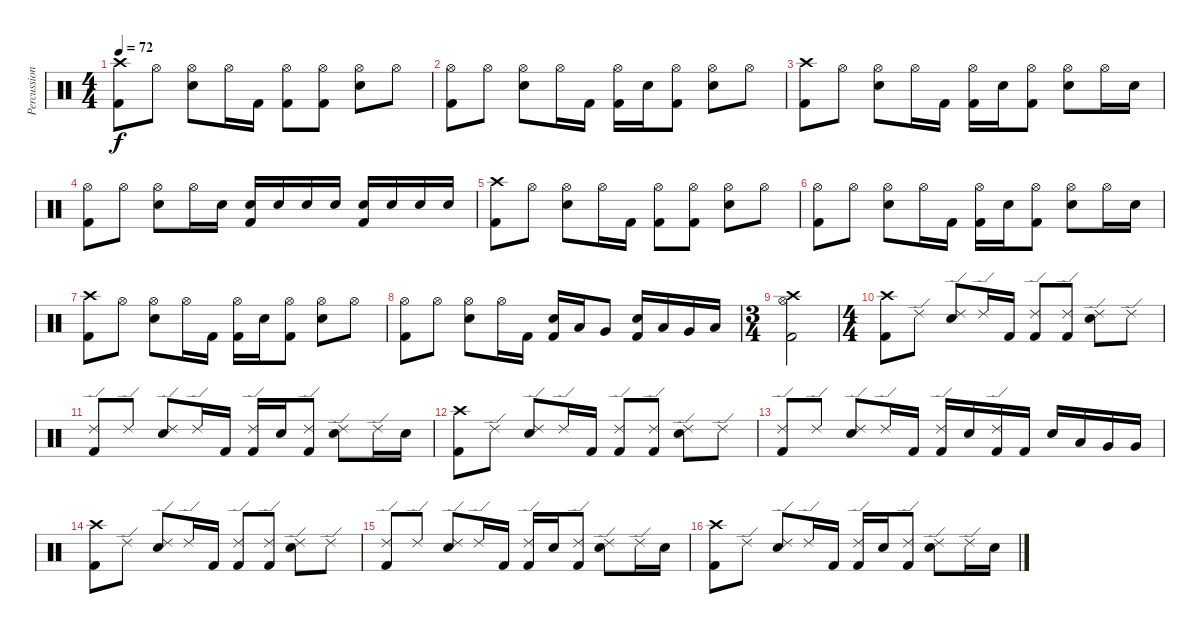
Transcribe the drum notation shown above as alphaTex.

\track ("Percussion" "Percussion") {instrument percussion}
\staff {score}
\articulation defaults
\ts (4 4)
\tempo 72
\clef neutral
\ks c
("Crash high (hit)" "Kick (hit) 2").8{dy f} "Hi-Hat (open)".8 ("Hi-Hat (open)" "Electric Snare (hit)").8 "Hi-Hat (open)".16 "Kick (hit) 2".16 ("Hi-Hat (open)" "Kick (hit) 2").8 ("Hi-Hat (open)" "Kick (hit) 2").8 ("Hi-Hat (open)" "Electric Snare (hit)").8 "Hi-Hat (open)".8 |
("Hi-Hat (open)" "Kick (hit) 2").8 "Hi-Hat (open)".8 ("Hi-Hat (open)" "Electric Snare (hit)").8 "Hi-Hat (open)".16 "Kick (hit) 2".16 ("Hi-Hat (open)" "Kick (hit) 2").16 "Electric Snare (hit)".16 ("Hi-Hat (open)" "Kick (hit) 2").8 ("Hi-Hat (open)" "Electric Snare (hit)").8 "Hi-Hat (open)".8 |
("Crash high (hit)" "Kick (hit) 2").8 "Hi-Hat (open)".8 ("Hi-Hat (open)" "Electric Snare (hit)").8 "Hi-Hat (open)".16 "Kick (hit) 2".16 ("Hi-Hat (open)" "Kick (hit) 2").16 "Electric Snare (hit)".16 ("Hi-Hat (open)" "Kick (hit) 2").8 ("Hi-Hat (open)" "Electric Snare (hit)").8 "Hi-Hat (open)".16 "Electric Snare (hit)".16 |
("Hi-Hat (open)" "Kick (hit) 2").8 "Hi-Hat (open)".8 ("Hi-Hat (open)" "Electric Snare (hit)").8 "Hi-Hat (open)".16 "Electric Snare (hit)".16 ("Electric Snare (hit)" "Kick (hit) 2").16 "Electric Snare (hit)".16 "Electric Snare (hit)".16 "Electric Snare (hit)".16 ("Electric Snare (hit)" "Kick (hit) 2").16 "Electric Snare (hit)".16 "Electric Snare (hit)".16 "Electric Snare (hit)".16 |
("Crash high (hit)" "Kick (hit) 2").8 "Hi-Hat (open)".8 ("Hi-Hat (open)" "Electric Snare (hit)").8 "Hi-Hat (open)".16 "Kick (hit) 2".16 ("Hi-Hat (open)" "Kick (hit) 2").8 ("Hi-Hat (open)" "Kick (hit) 2").8 ("Hi-Hat (open)" "Electric Snare (hit)").8 "Hi-Hat (open)".8 |
("Hi-Hat (open)" "Kick (hit) 2").8 "Hi-Hat (open)".8 ("Hi-Hat (open)" "Electric Snare (hit)").8 "Hi-Hat (open)".16 "Kick (hit) 2".16 ("Hi-Hat (open)" "Kick (hit) 2").16 "Electric Snare (hit)".16 ("Hi-Hat (open)" "Kick (hit) 2").8 ("Hi-Hat (open)" "Electric Snare (hit)").8 "Hi-Hat (open)".16 "Electric Snare (hit)".16 |
("Crash high (hit)" "Kick (hit) 2").8 "Hi-Hat (open)".8 ("Hi-Hat (open)" "Electric Snare (hit)").8 "Hi-Hat (open)".16 "Kick (hit) 2".16 ("Hi-Hat (open)" "Kick (hit) 2").16 "Electric Snare (hit)".16 ("Hi-Hat (open)" "Kick (hit) 2").8 ("Hi-Hat (open)" "Electric Snare (hit)").8 "Hi-Hat (open)".8 |
("Hi-Hat (open)" "Kick (hit) 2").8 "Hi-Hat (open)".8 ("Hi-Hat (open)" "Electric Snare (hit)").8 "Hi-Hat (open)".16 "Kick (hit) 2".16 ("Electric Snare (hit)" "Kick (hit) 2").16 "Low Tom (hit)".16 "Very Low Tom (hit)".8 ("Electric Snare (hit)" "Kick (hit) 2").16 "Low Tom (hit)".16 "Very Low Tom (hit)".16 "Low Floor Tom (hit)".16 |
\ts (3 4)
("Crash high (hit)" "Kick (hit) 2" "Hi-Hat (open)").2 |
\ts (4 4)
("Crash high (hit)" "Kick (hit) 2").8 "Ride (edge) 2".8 ("Ride (edge) 2" "Electric Snare (hit)").8 "Ride (edge) 2".16 "Kick (hit) 2".16 ("Ride (edge) 2" "Kick (hit) 2").8 ("Ride (edge) 2" "Kick (hit) 2").8 ("Ride (edge) 2" "Electric Snare (hit)").8 "Ride (edge) 2".8 |
("Ride (edge) 2" "Kick (hit) 2").8 "Ride (edge) 2".8 ("Ride (edge) 2" "Electric Snare (hit)").8 "Ride (edge) 2".16 "Kick (hit) 2".16 ("Ride (edge) 2" "Kick (hit) 2").16 "Electric Snare (hit)".16 ("Ride (edge) 2" "Kick (hit) 2").8 ("Ride (edge) 2" "Electric Snare (hit)").8 "Ride (edge) 2".16 "Electric Snare (hit)".16 |
("Crash high (hit)" "Kick (hit) 2").8 "Ride (edge) 2".8 ("Ride (edge) 2" "Electric Snare (hit)").8 "Ride (edge) 2".16 "Kick (hit) 2".16 ("Ride (edge) 2" "Kick (hit) 2").8 ("Ride (edge) 2" "Kick (hit) 2").8 ("Ride (edge) 2" "Electric Snare (hit)").8 "Ride (edge) 2".8 |
("Ride (edge) 2" "Kick (hit) 2").8 "Ride (edge) 2".8 ("Ride (edge) 2" "Electric Snare (hit)").8 "Ride (edge) 2".16 "Kick (hit) 2".16 ("Ride (edge) 2" "Kick (hit) 2").16 "Electric Snare (hit)".16 ("Ride (edge) 2" "Kick (hit) 2").16 "Kick (hit) 2".16 "Electric Snare (hit)".16 "Low Tom (hit)".16 "Very Low Tom (hit)".16 "Very Low Tom (hit)".16 |
("Crash high (hit)" "Kick (hit) 2").8 "Ride (edge) 2".8 ("Ride (edge) 2" "Electric Snare (hit)").8 "Ride (edge) 2".16 "Kick (hit) 2".16 ("Ride (edge) 2" "Kick (hit) 2").8 ("Ride (edge) 2" "Kick (hit) 2").8 ("Ride (edge) 2" "Electric Snare (hit)").8 "Ride (edge) 2".8 |
("Ride (edge) 2" "Kick (hit) 2").8 "Ride (edge) 2".8 ("Ride (edge) 2" "Electric Snare (hit)").8 "Ride (edge) 2".16 "Kick (hit) 2".16 ("Ride (edge) 2" "Kick (hit) 2").16 "Electric Snare (hit)".16 ("Ride (edge) 2" "Kick (hit) 2").8 ("Ride (edge) 2" "Electric Snare (hit)").8 "Ride (edge) 2".16 "Electric Snare (hit)".16 |
("Crash high (hit)" "Kick (hit) 2").8 "Ride (edge) 2".8 ("Ride (edge) 2" "Electric Snare (hit)").8 "Ride (edge) 2".16 "Kick (hit) 2".16 ("Ride (edge) 2" "Kick (hit) 2").16 "Electric Snare (hit)".16 ("Ride (edge) 2" "Kick (hit) 2").8 ("Ride (edge) 2" "Electric Snare (hit)").8 "Ride (edge) 2".16 "Electric Snare (hit)".16
